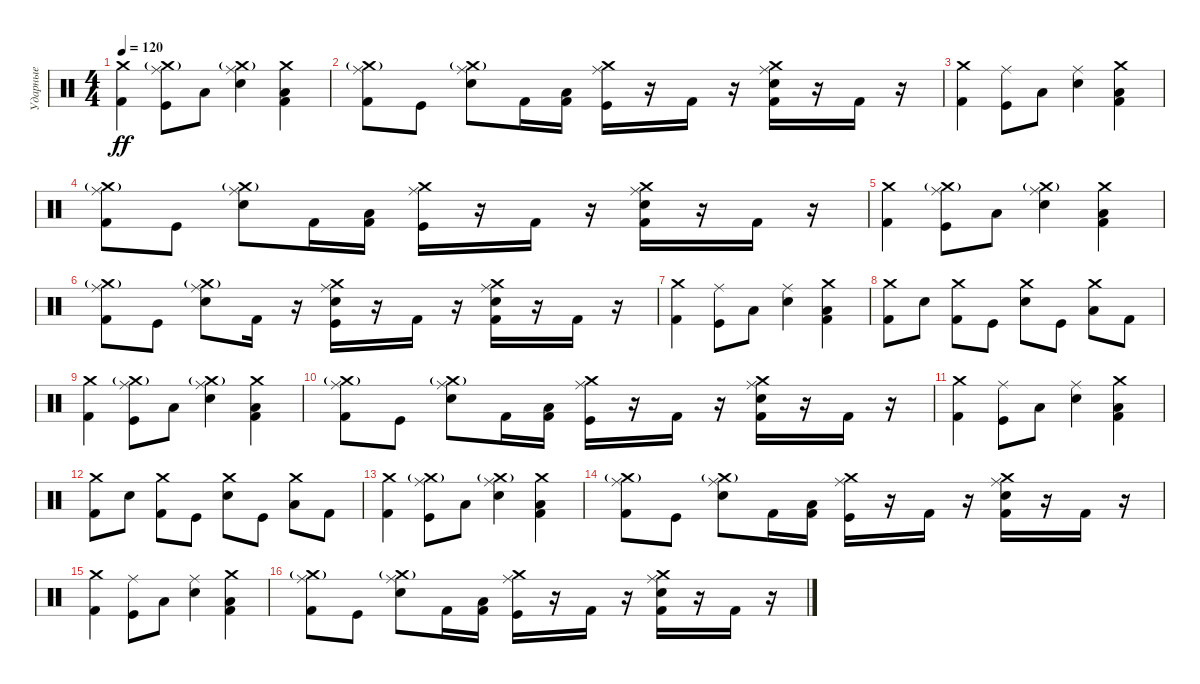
\track ("Ударные" "Ударные") {instrument percussion}
\staff {score}
\articulation defaults
\ts (4 4)
\tempo 120
\clef neutral
\ks c
("Crash medium (hit)" "Kick (hit) 2").4{dy ff} ("Crash medium (hit)"{g} "Ride (middle)" "Kick (hit)").8 "Low Floor Tom (hit)".8 ("Crash medium (hit)"{g} "Ride (middle)" "Snare (hit) 2").4 ("Crash medium (hit)" "Kick (hit) 2" "Low Floor Tom (hit)").4 |
("Ride (middle)" "Crash medium (hit)"{g} "Kick (hit) 2").8 "Kick (hit)".8 ("Ride (middle)" "Crash medium (hit)"{g} "Snare (hit) 2").8 "Kick (hit) 2".16 ("Low Floor Tom (hit)" "Kick (hit) 2").16{bd 240} ("Ride (middle)" "Crash medium (hit)" "Kick (hit)").16 r.16 "Kick (hit) 2".16 r.16 ("Ride (middle)" "Crash medium (hit)" "Snare (hit) 2" "Kick (hit) 2").16 r.16 "Kick (hit) 2".16 r.16 |
("Crash medium (hit)" "Kick (hit) 2").4 ("Ride (middle)" "Kick (hit)").8 "Low Floor Tom (hit)".8 ("Ride (middle)" "Snare (hit) 2").4 ("Crash medium (hit)" "Kick (hit) 2" "Low Floor Tom (hit)").4 |
("Ride (middle)" "Crash medium (hit)"{g} "Kick (hit) 2").8 "Kick (hit)".8 ("Ride (middle)" "Crash medium (hit)"{g} "Snare (hit) 2").8 "Kick (hit) 2".16 ("Low Floor Tom (hit)" "Kick (hit) 2").16{bd 240} ("Ride (middle)" "Crash medium (hit)" "Kick (hit)").16 r.16 "Kick (hit) 2".16 r.16 ("Ride (middle)" "Crash medium (hit)" "Snare (hit) 2" "Kick (hit) 2").16 r.16 "Kick (hit) 2".16 r.16 |
("Crash medium (hit)" "Kick (hit) 2").4 ("Crash medium (hit)"{g} "Ride (middle)" "Kick (hit)").8 "Low Floor Tom (hit)".8 ("Crash medium (hit)"{g} "Ride (middle)" "Snare (hit) 2").4 ("Crash medium (hit)" "Kick (hit) 2" "Low Floor Tom (hit)").4 |
("Ride (middle)" "Crash medium (hit)"{g} "Kick (hit) 2").8 "Kick (hit)".8 ("Ride (middle)" "Crash medium (hit)"{g} "Snare (hit) 2").8 "Kick (hit) 2".16 r.16 ("Ride (middle)" "Crash medium (hit)" "Snare (hit) 2" "Kick (hit)").16 r.16 "Kick (hit) 2".16 r.16 ("Ride (middle)" "Crash medium (hit)" "Snare (hit) 2" "Kick (hit) 2").16 r.16 "Kick (hit) 2".16 r.16 |
("Crash medium (hit)" "Kick (hit) 2").4 ("Ride (middle)" "Kick (hit)").8 "Low Floor Tom (hit)".8 ("Ride (middle)" "Snare (hit) 2").4 ("Crash medium (hit)" "Kick (hit) 2" "Low Floor Tom (hit)").4 |
("Crash medium (hit)" "Kick (hit) 2").8 "Snare (hit) 2".8 ("Crash medium (hit)" "Kick (hit) 2").8 "Kick (hit)".8 ("Crash medium (hit)" "Snare (hit) 2").8 "Kick (hit)".8 ("Crash medium (hit)" "Low Floor Tom (hit)").8 "Kick (hit) 2".8 |
("Crash medium (hit)" "Kick (hit) 2").4 ("Crash medium (hit)"{g} "Ride (middle)" "Kick (hit)").8 "Low Floor Tom (hit)".8 ("Crash medium (hit)"{g} "Ride (middle)" "Snare (hit) 2").4 ("Crash medium (hit)" "Kick (hit) 2" "Low Floor Tom (hit)").4 |
("Ride (middle)" "Crash medium (hit)"{g} "Kick (hit) 2").8 "Kick (hit)".8 ("Ride (middle)" "Crash medium (hit)"{g} "Snare (hit) 2").8 "Kick (hit) 2".16 ("Low Floor Tom (hit)" "Kick (hit) 2").16{bd 240} ("Ride (middle)" "Crash medium (hit)" "Kick (hit)").16 r.16 "Kick (hit) 2".16 r.16 ("Ride (middle)" "Crash medium (hit)" "Snare (hit) 2" "Kick (hit) 2").16 r.16 "Kick (hit) 2".16 r.16 |
("Crash medium (hit)" "Kick (hit) 2").4 ("Ride (middle)" "Kick (hit)").8 "Low Floor Tom (hit)".8 ("Ride (middle)" "Snare (hit) 2").4 ("Crash medium (hit)" "Kick (hit) 2" "Low Floor Tom (hit)").4 |
("Crash medium (hit)" "Kick (hit) 2").8 "Snare (hit) 2".8 ("Crash medium (hit)" "Kick (hit) 2").8 "Kick (hit)".8 ("Crash medium (hit)" "Snare (hit) 2").8 "Kick (hit)".8 ("Crash medium (hit)" "Low Floor Tom (hit)").8 "Kick (hit) 2".8 |
("Crash medium (hit)" "Kick (hit) 2").4 ("Crash medium (hit)"{g} "Ride (middle)" "Kick (hit)").8 "Low Floor Tom (hit)".8 ("Crash medium (hit)"{g} "Ride (middle)" "Snare (hit) 2").4 ("Crash medium (hit)" "Kick (hit) 2" "Low Floor Tom (hit)").4 |
("Ride (middle)" "Crash medium (hit)"{g} "Kick (hit) 2").8 "Kick (hit)".8 ("Ride (middle)" "Crash medium (hit)"{g} "Snare (hit) 2").8 "Kick (hit) 2".16 ("Low Floor Tom (hit)" "Kick (hit) 2").16{bd 240} ("Ride (middle)" "Crash medium (hit)" "Kick (hit)").16 r.16 "Kick (hit) 2".16 r.16 ("Ride (middle)" "Crash medium (hit)" "Snare (hit) 2" "Kick (hit) 2").16 r.16 "Kick (hit) 2".16 r.16 |
("Crash medium (hit)" "Kick (hit) 2").4 ("Ride (middle)" "Kick (hit)").8 "Low Floor Tom (hit)".8 ("Ride (middle)" "Snare (hit) 2").4 ("Crash medium (hit)" "Kick (hit) 2" "Low Floor Tom (hit)").4 |
("Ride (middle)" "Crash medium (hit)"{g} "Kick (hit) 2").8 "Kick (hit)".8 ("Ride (middle)" "Crash medium (hit)"{g} "Snare (hit) 2").8 "Kick (hit) 2".16 ("Low Floor Tom (hit)" "Kick (hit) 2").16{bd 240} ("Ride (middle)" "Crash medium (hit)" "Kick (hit)").16 r.16 "Kick (hit) 2".16 r.16 ("Ride (middle)" "Crash medium (hit)" "Snare (hit) 2" "Kick (hit) 2").16 r.16 "Kick (hit) 2".16 r.16
